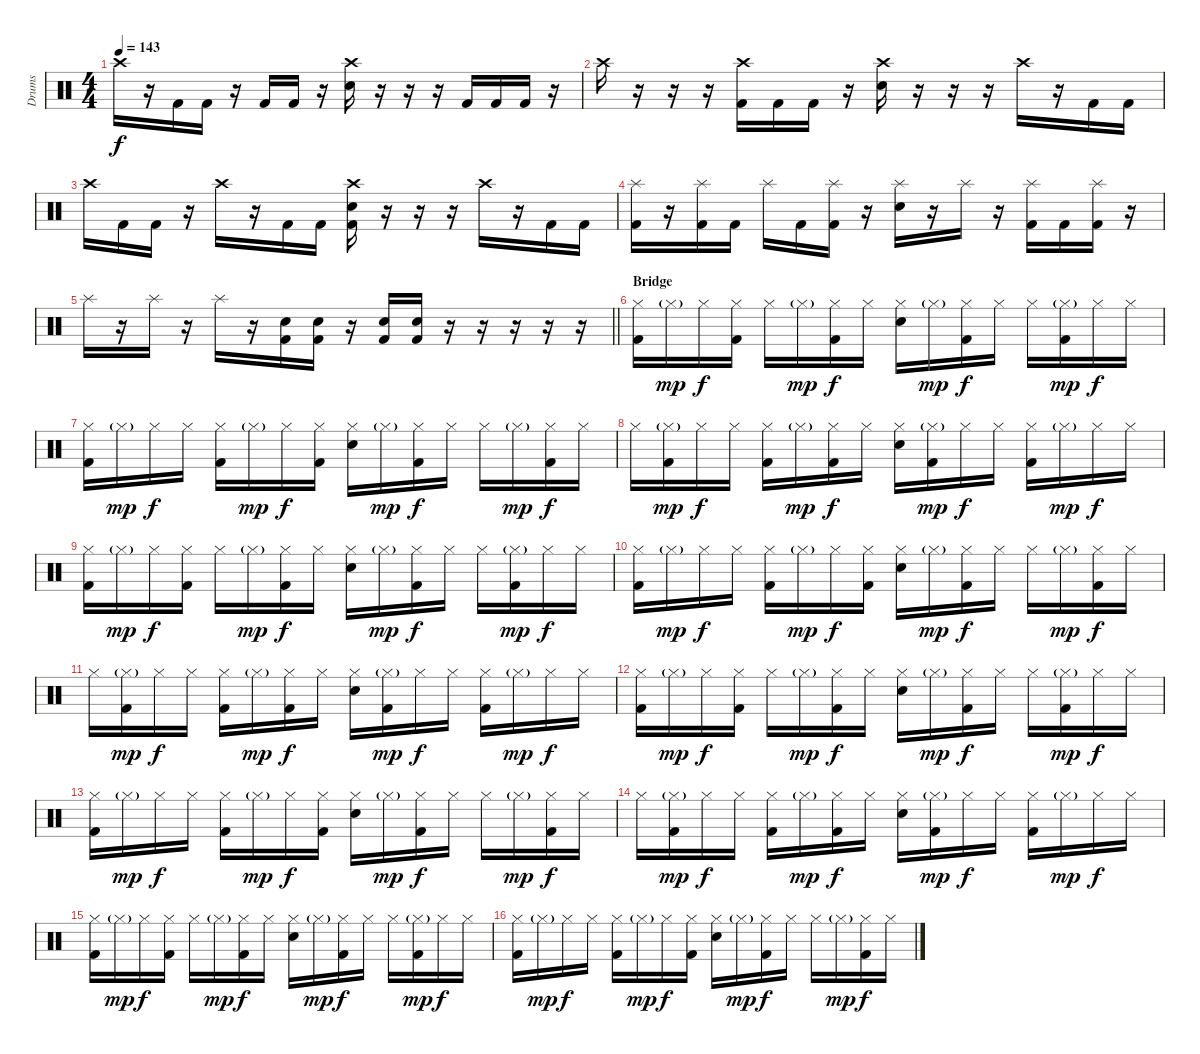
\track ("Drums" "Drums") {instrument percussion}
\staff {score}
\articulation defaults
\ts (4 4)
\tempo 143
\clef neutral
\ks c "Crash high (hit)".16{dy f}
r.16 "Kick (hit) 2".16 "Kick (hit) 2".16 r.16 "Kick (hit) 2".16 "Kick (hit) 2".16 r.16 ("Crash high (hit)" "Electric Snare (hit)").16 r.16 r.16 r.16 "Kick (hit) 2".16 "Kick (hit) 2".16 "Kick (hit) 2".16 r.16 |
"Crash high (hit)".16 r.16 r.16 r.16 ("Crash high (hit)" "Kick (hit) 2").16 "Kick (hit) 2".16 "Kick (hit) 2".16 r.16 ("Crash high (hit)" "Electric Snare (hit)").16 r.16 r.16 r.16 "Crash high (hit)".16 r.16 "Kick (hit) 2".16 "Kick (hit) 2".16 |
"Crash high (hit)".16 "Kick (hit) 2".16 "Kick (hit) 2".16 r.16 "Crash high (hit)".16 r.16 "Kick (hit) 2".16 "Kick (hit) 2".16 ("Crash high (hit)" "Electric Snare (hit)" "Kick (hit) 2").16 r.16 r.16 r.16 "Crash high (hit)".16 r.16 "Kick (hit) 2".16 "Kick (hit) 2".16 |
("Splash (hit)" "Kick (hit) 2").16 r.16 ("Splash (hit)" "Kick (hit) 2").16 "Kick (hit) 2".16 "Splash (hit)".16 "Kick (hit) 2".16 ("Splash (hit)" "Kick (hit) 2").16 r.16 ("Splash (hit)" "Electric Snare (hit)").16 r.16 "Splash (hit)".16 r.16 ("Splash (hit)" "Kick (hit) 2").16 "Kick (hit) 2".16 ("Splash (hit)" "Kick (hit) 2").16 r.16 |
\barLineRight lightlight "Splash (hit)".16
r.16 "Splash (hit)".16 r.16 "Splash (hit)".16 r.16 ("Electric Snare (hit)" "Kick (hit) 2").16 ("Electric Snare (hit)" "Kick (hit) 2").16 r.16 ("Electric Snare (hit)" "Kick (hit) 2").16 ("Electric Snare (hit)" "Kick (hit) 2").16 r.16 r.16 r.16 r.16 r.16 |
\section ("" "Bridge")
("Hi-Hat (closed)" "Kick (hit) 2").16 "Hi-Hat (closed)"{g}.16{dy mp} "Hi-Hat (closed)".16{dy f} ("Hi-Hat (closed)" "Kick (hit) 2").16 "Hi-Hat (closed)".16 "Hi-Hat (closed)"{g}.16{dy mp} ("Hi-Hat (closed)" "Kick (hit) 2").16{dy f} "Hi-Hat (closed)".16 ("Electric Snare (hit)" "Hi-Hat (closed)").16 "Hi-Hat (closed)"{g}.16{dy mp} ("Hi-Hat (closed)" "Kick (hit) 2").16{dy f} "Hi-Hat (closed)".16 "Hi-Hat (closed)".16 ("Hi-Hat (closed)"{g} "Kick (hit) 2").16{dy mp} "Hi-Hat (closed)".16{dy f} "Hi-Hat (closed)".16 |
("Hi-Hat (closed)" "Kick (hit) 2").16 "Hi-Hat (closed)"{g}.16{dy mp} "Hi-Hat (closed)".16{dy f} "Hi-Hat (closed)".16 ("Hi-Hat (closed)" "Kick (hit) 2").16 "Hi-Hat (closed)"{g}.16{dy mp} "Hi-Hat (closed)".16{dy f} ("Hi-Hat (closed)" "Kick (hit) 2").16 ("Electric Snare (hit)" "Hi-Hat (closed)").16 "Hi-Hat (closed)"{g}.16{dy mp} ("Hi-Hat (closed)" "Kick (hit) 2").16{dy f} "Hi-Hat (closed)".16 "Hi-Hat (closed)".16 "Hi-Hat (closed)"{g}.16{dy mp} ("Hi-Hat (closed)" "Kick (hit) 2").16{dy f} "Hi-Hat (closed)".16 |
"Hi-Hat (closed)".16 ("Hi-Hat (closed)"{g} "Kick (hit) 2").16{dy mp} "Hi-Hat (closed)".16{dy f} "Hi-Hat (closed)".16 ("Hi-Hat (closed)" "Kick (hit) 2").16 "Hi-Hat (closed)"{g}.16{dy mp} ("Hi-Hat (closed)" "Kick (hit) 2").16{dy f} "Hi-Hat (closed)".16 ("Electric Snare (hit)" "Hi-Hat (closed)").16 ("Hi-Hat (closed)"{g} "Kick (hit) 2").16{dy mp} "Hi-Hat (closed)".16{dy f} "Hi-Hat (closed)".16 ("Hi-Hat (closed)" "Kick (hit) 2").16 "Hi-Hat (closed)"{g}.16{dy mp} "Hi-Hat (closed)".16{dy f} "Hi-Hat (closed)".16 |
("Hi-Hat (closed)" "Kick (hit) 2").16 "Hi-Hat (closed)"{g}.16{dy mp} "Hi-Hat (closed)".16{dy f} ("Hi-Hat (closed)" "Kick (hit) 2").16 "Hi-Hat (closed)".16 "Hi-Hat (closed)"{g}.16{dy mp} ("Hi-Hat (closed)" "Kick (hit) 2").16{dy f} "Hi-Hat (closed)".16 ("Electric Snare (hit)" "Hi-Hat (closed)").16 "Hi-Hat (closed)"{g}.16{dy mp} ("Hi-Hat (closed)" "Kick (hit) 2").16{dy f} "Hi-Hat (closed)".16 "Hi-Hat (closed)".16 ("Hi-Hat (closed)"{g} "Kick (hit) 2").16{dy mp} "Hi-Hat (closed)".16{dy f} "Hi-Hat (closed)".16 |
("Hi-Hat (closed)" "Kick (hit) 2").16 "Hi-Hat (closed)"{g}.16{dy mp} "Hi-Hat (closed)".16{dy f} "Hi-Hat (closed)".16 ("Hi-Hat (closed)" "Kick (hit) 2").16 "Hi-Hat (closed)"{g}.16{dy mp} "Hi-Hat (closed)".16{dy f} ("Hi-Hat (closed)" "Kick (hit) 2").16 ("Electric Snare (hit)" "Hi-Hat (closed)").16 "Hi-Hat (closed)"{g}.16{dy mp} ("Hi-Hat (closed)" "Kick (hit) 2").16{dy f} "Hi-Hat (closed)".16 "Hi-Hat (closed)".16 "Hi-Hat (closed)"{g}.16{dy mp} ("Hi-Hat (closed)" "Kick (hit) 2").16{dy f} "Hi-Hat (closed)".16 |
"Hi-Hat (closed)".16 ("Hi-Hat (closed)"{g} "Kick (hit) 2").16{dy mp} "Hi-Hat (closed)".16{dy f} "Hi-Hat (closed)".16 ("Hi-Hat (closed)" "Kick (hit) 2").16 "Hi-Hat (closed)"{g}.16{dy mp} ("Hi-Hat (closed)" "Kick (hit) 2").16{dy f} "Hi-Hat (closed)".16 ("Electric Snare (hit)" "Hi-Hat (closed)").16 ("Hi-Hat (closed)"{g} "Kick (hit) 2").16{dy mp} "Hi-Hat (closed)".16{dy f} "Hi-Hat (closed)".16 ("Hi-Hat (closed)" "Kick (hit) 2").16 "Hi-Hat (closed)"{g}.16{dy mp} "Hi-Hat (closed)".16{dy f} "Hi-Hat (closed)".16 |
("Hi-Hat (closed)" "Kick (hit) 2").16 "Hi-Hat (closed)"{g}.16{dy mp} "Hi-Hat (closed)".16{dy f} ("Hi-Hat (closed)" "Kick (hit) 2").16 "Hi-Hat (closed)".16 "Hi-Hat (closed)"{g}.16{dy mp} ("Hi-Hat (closed)" "Kick (hit) 2").16{dy f} "Hi-Hat (closed)".16 ("Electric Snare (hit)" "Hi-Hat (closed)").16 "Hi-Hat (closed)"{g}.16{dy mp} ("Hi-Hat (closed)" "Kick (hit) 2").16{dy f} "Hi-Hat (closed)".16 "Hi-Hat (closed)".16 ("Hi-Hat (closed)"{g} "Kick (hit) 2").16{dy mp} "Hi-Hat (closed)".16{dy f} "Hi-Hat (closed)".16 |
("Hi-Hat (closed)" "Kick (hit) 2").16 "Hi-Hat (closed)"{g}.16{dy mp} "Hi-Hat (closed)".16{dy f} "Hi-Hat (closed)".16 ("Hi-Hat (closed)" "Kick (hit) 2").16 "Hi-Hat (closed)"{g}.16{dy mp} "Hi-Hat (closed)".16{dy f} ("Hi-Hat (closed)" "Kick (hit) 2").16 ("Electric Snare (hit)" "Hi-Hat (closed)").16 "Hi-Hat (closed)"{g}.16{dy mp} ("Hi-Hat (closed)" "Kick (hit) 2").16{dy f} "Hi-Hat (closed)".16 "Hi-Hat (closed)".16 "Hi-Hat (closed)"{g}.16{dy mp} ("Hi-Hat (closed)" "Kick (hit) 2").16{dy f} "Hi-Hat (closed)".16 |
"Hi-Hat (closed)".16 ("Hi-Hat (closed)"{g} "Kick (hit) 2").16{dy mp} "Hi-Hat (closed)".16{dy f} "Hi-Hat (closed)".16 ("Hi-Hat (closed)" "Kick (hit) 2").16 "Hi-Hat (closed)"{g}.16{dy mp} ("Hi-Hat (closed)" "Kick (hit) 2").16{dy f} "Hi-Hat (closed)".16 ("Electric Snare (hit)" "Hi-Hat (closed)").16 ("Hi-Hat (closed)"{g} "Kick (hit) 2").16{dy mp} "Hi-Hat (closed)".16{dy f} "Hi-Hat (closed)".16 ("Hi-Hat (closed)" "Kick (hit) 2").16 "Hi-Hat (closed)"{g}.16{dy mp} "Hi-Hat (closed)".16{dy f} "Hi-Hat (closed)".16 |
("Hi-Hat (closed)" "Kick (hit) 2").16 "Hi-Hat (closed)"{g}.16{dy mp} "Hi-Hat (closed)".16{dy f} ("Hi-Hat (closed)" "Kick (hit) 2").16 "Hi-Hat (closed)".16 "Hi-Hat (closed)"{g}.16{dy mp} ("Hi-Hat (closed)" "Kick (hit) 2").16{dy f} "Hi-Hat (closed)".16 ("Electric Snare (hit)" "Hi-Hat (closed)").16 "Hi-Hat (closed)"{g}.16{dy mp} ("Hi-Hat (closed)" "Kick (hit) 2").16{dy f} "Hi-Hat (closed)".16 "Hi-Hat (closed)".16 ("Hi-Hat (closed)"{g} "Kick (hit) 2").16{dy mp} "Hi-Hat (closed)".16{dy f} "Hi-Hat (closed)".16 |
("Hi-Hat (closed)" "Kick (hit) 2").16 "Hi-Hat (closed)"{g}.16{dy mp} "Hi-Hat (closed)".16{dy f} "Hi-Hat (closed)".16 ("Hi-Hat (closed)" "Kick (hit) 2").16 "Hi-Hat (closed)"{g}.16{dy mp} "Hi-Hat (closed)".16{dy f} ("Hi-Hat (closed)" "Kick (hit) 2").16 ("Electric Snare (hit)" "Hi-Hat (closed)").16 "Hi-Hat (closed)"{g}.16{dy mp} ("Hi-Hat (closed)" "Kick (hit) 2").16{dy f} "Hi-Hat (closed)".16 "Hi-Hat (closed)".16 "Hi-Hat (closed)"{g}.16{dy mp} ("Hi-Hat (closed)" "Kick (hit) 2").16{dy f} "Hi-Hat (closed)".16
